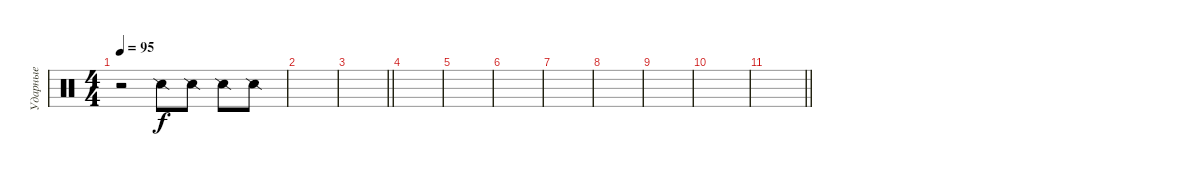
\track ("Ударные" "Ударные") {instrument percussion}
\staff {score}
\articulation defaults
\ts (4 4)
\tempo 95
\clef neutral
\ks c
r.2{dy f} "Snare (side stick) 2".8 "Snare (side stick) 2".8 "Snare (side stick) 2".8 "Snare (side stick) 2".8 |
|
\barLineRight lightlight
|
|
|
|
|
|
|
|
\barLineRight lightlight
